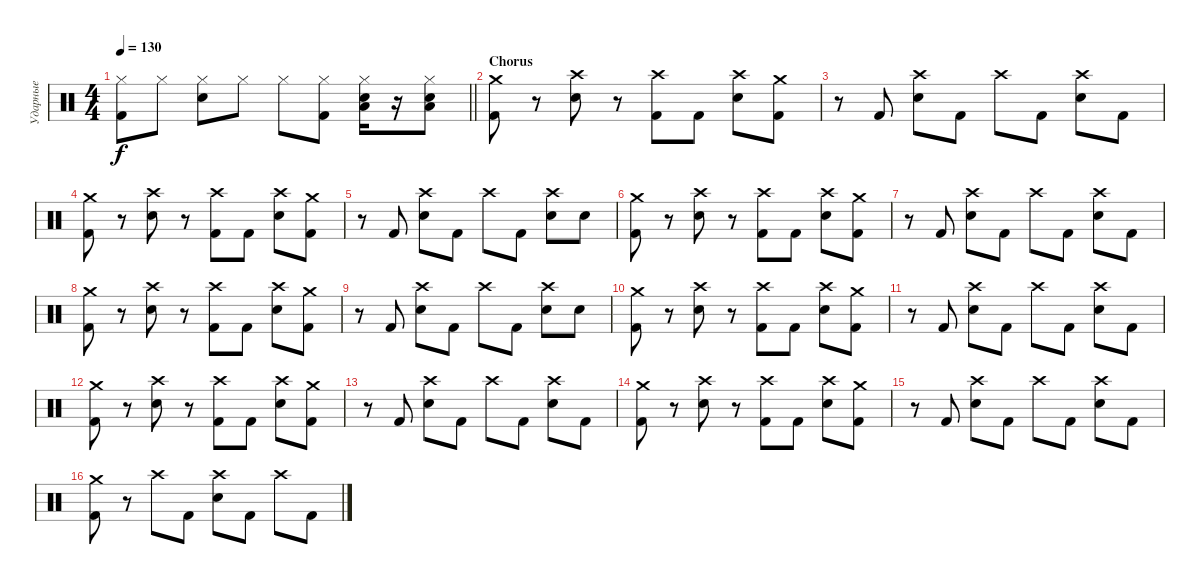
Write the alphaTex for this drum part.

\track ("Ударные" "Ударные") {instrument percussion}
\staff {score}
\articulation defaults
\ts (4 4)
\tempo 130
\clef neutral
\barLineRight lightlight
\ks c
("Hi-Hat (closed)" "Kick (hit) 2").8{dy f} "Hi-Hat (closed)".8 ("Hi-Hat (closed)" "Snare (hit) 2").8 "Hi-Hat (closed)".8 "Hi-Hat (closed)".8 ("Hi-Hat (closed)" "Kick (hit) 2").8 ("Hi-Hat (closed)" "Low Tom (hit)" "Snare (hit) 2").16 r.16 ("Hi-Hat (closed)" "Snare (hit) 2" "Low Tom (hit)").8 |
\section ("" "Chorus")
("Crash medium (hit)" "Kick (hit) 2").8 r.8 ("Crash high (hit)" "Snare (hit) 2").8 r.8 ("Crash high (hit)" "Kick (hit) 2").8 "Kick (hit) 2".8 ("Crash high (hit)" "Snare (hit) 2").8 ("Crash medium (hit)" "Kick (hit) 2").8 |
r.8 "Kick (hit) 2".8 ("Crash high (hit)" "Snare (hit) 2").8 "Kick (hit) 2".8 "Crash high (hit)".8 "Kick (hit) 2".8 ("Crash high (hit)" "Snare (hit) 2").8 "Kick (hit) 2".8 |
("Crash medium (hit)" "Kick (hit) 2").8 r.8 ("Crash high (hit)" "Snare (hit) 2").8 r.8 ("Crash high (hit)" "Kick (hit) 2").8 "Kick (hit) 2".8 ("Crash high (hit)" "Snare (hit) 2").8 ("Crash medium (hit)" "Kick (hit) 2").8 |
r.8 "Kick (hit) 2".8 ("Crash high (hit)" "Snare (hit) 2").8 "Kick (hit) 2".8 "Crash high (hit)".8 "Kick (hit) 2".8 ("Crash high (hit)" "Snare (hit) 2").8 "Snare (hit) 2".8 |
("Crash medium (hit)" "Kick (hit) 2").8 r.8 ("Crash high (hit)" "Snare (hit) 2").8 r.8 ("Crash high (hit)" "Kick (hit) 2").8 "Kick (hit) 2".8 ("Crash high (hit)" "Snare (hit) 2").8 ("Crash medium (hit)" "Kick (hit) 2").8 |
r.8 "Kick (hit) 2".8 ("Crash high (hit)" "Snare (hit) 2").8 "Kick (hit) 2".8 "Crash high (hit)".8 "Kick (hit) 2".8 ("Crash high (hit)" "Snare (hit) 2").8 "Kick (hit) 2".8 |
("Crash medium (hit)" "Kick (hit) 2").8 r.8 ("Crash high (hit)" "Snare (hit) 2").8 r.8 ("Crash high (hit)" "Kick (hit) 2").8 "Kick (hit) 2".8 ("Crash high (hit)" "Snare (hit) 2").8 ("Crash medium (hit)" "Kick (hit) 2").8 |
r.8 "Kick (hit) 2".8 ("Crash high (hit)" "Snare (hit) 2").8 "Kick (hit) 2".8 "Crash high (hit)".8 "Kick (hit) 2".8 ("Crash high (hit)" "Snare (hit) 2").8 "Snare (hit) 2".8 |
("Crash medium (hit)" "Kick (hit) 2").8 r.8 ("Crash high (hit)" "Snare (hit) 2").8 r.8 ("Crash high (hit)" "Kick (hit) 2").8 "Kick (hit) 2".8 ("Crash high (hit)" "Snare (hit) 2").8 ("Crash medium (hit)" "Kick (hit) 2").8 |
r.8 "Kick (hit) 2".8 ("Crash high (hit)" "Snare (hit) 2").8 "Kick (hit) 2".8 "Crash high (hit)".8 "Kick (hit) 2".8 ("Crash high (hit)" "Snare (hit) 2").8 "Kick (hit) 2".8 |
("Crash medium (hit)" "Kick (hit) 2").8 r.8 ("Crash high (hit)" "Snare (hit) 2").8 r.8 ("Crash high (hit)" "Kick (hit) 2").8 "Kick (hit) 2".8 ("Crash high (hit)" "Snare (hit) 2").8 ("Crash medium (hit)" "Kick (hit) 2").8 |
r.8 "Kick (hit) 2".8 ("Crash high (hit)" "Snare (hit) 2").8 "Kick (hit) 2".8 "Crash high (hit)".8 "Kick (hit) 2".8 ("Crash high (hit)" "Snare (hit) 2").8 "Kick (hit) 2".8 |
("Crash medium (hit)" "Kick (hit) 2").8 r.8 ("Crash high (hit)" "Snare (hit) 2").8 r.8 ("Crash high (hit)" "Kick (hit) 2").8 "Kick (hit) 2".8 ("Crash high (hit)" "Snare (hit) 2").8 ("Crash medium (hit)" "Kick (hit) 2").8 |
r.8 "Kick (hit) 2".8 ("Crash high (hit)" "Snare (hit) 2").8 "Kick (hit) 2".8 "Crash high (hit)".8 "Kick (hit) 2".8 ("Crash high (hit)" "Snare (hit) 2").8 "Kick (hit) 2".8 |
("Crash medium (hit)" "Kick (hit) 2").8 r.8 "Crash high (hit)".8 "Kick (hit) 2".8 ("Crash high (hit)" "Snare (hit) 2").8 "Kick (hit) 2".8 "Crash high (hit)".8 "Kick (hit) 2".8
